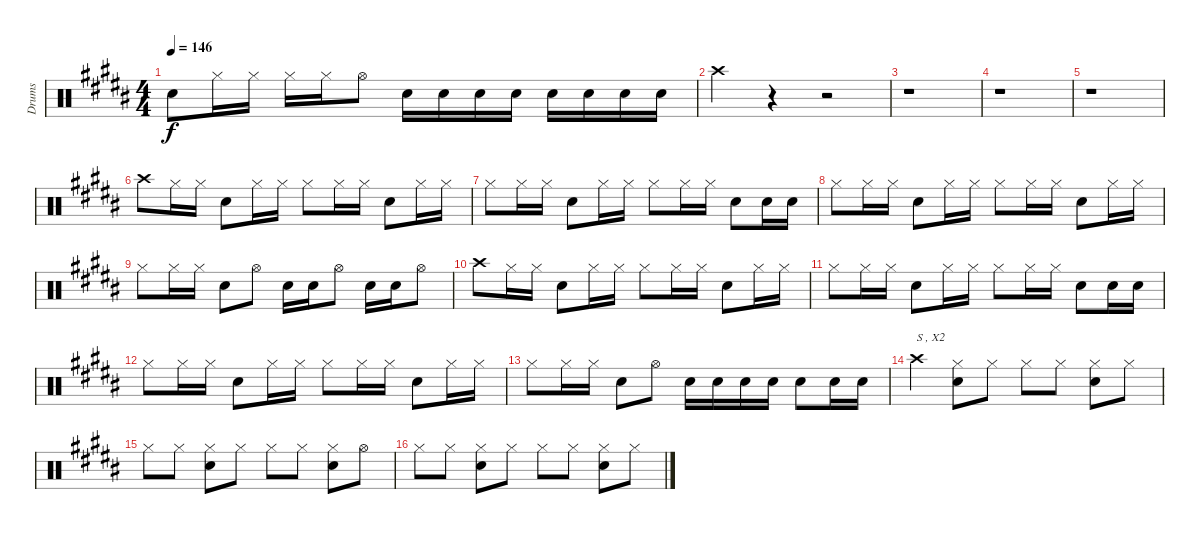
\track ("Drums" "Drums") {instrument percussion}
\staff {score}
\articulation defaults
\ts (4 4)
\tempo 146
\clef neutral
\ks b "Snare (hit) 2".8{dy f} "Hi-Hat (closed)".16 "Hi-Hat (closed)".16 "Hi-Hat (closed)".16 "Hi-Hat (closed)".16 "Hi-Hat (open)".8 "Snare (hit) 2".16 "Snare (hit) 2".16 "Snare (hit) 2".16 "Snare (hit) 2".16 "Snare (hit) 2".16 "Snare (hit) 2".16 "Snare (hit) 2".16 "Snare (hit) 2".16
|
"Crash high (hit)".4 r.4 r.2 |
r.1 |
r.1 |
r.1 |
"Crash high (hit)".8 "Hi-Hat (closed)".16 "Hi-Hat (closed)".16 "Snare (hit) 2".8 "Hi-Hat (closed)".16 "Hi-Hat (closed)".16 "Hi-Hat (closed)".8 "Hi-Hat (closed)".16 "Hi-Hat (closed)".16 "Snare (hit) 2".8 "Hi-Hat (closed)".16 "Hi-Hat (closed)".16 |
"Hi-Hat (closed)".8 "Hi-Hat (closed)".16 "Hi-Hat (closed)".16 "Snare (hit) 2".8 "Hi-Hat (closed)".16 "Hi-Hat (closed)".16 "Hi-Hat (closed)".8 "Hi-Hat (closed)".16 "Hi-Hat (closed)".16 "Snare (hit) 2".8 "Snare (hit) 2".16 "Snare (hit) 2".16 |
"Hi-Hat (closed)".8 "Hi-Hat (closed)".16 "Hi-Hat (closed)".16 "Snare (hit) 2".8 "Hi-Hat (closed)".16 "Hi-Hat (closed)".16 "Hi-Hat (closed)".8 "Hi-Hat (closed)".16 "Hi-Hat (closed)".16 "Snare (hit) 2".8 "Hi-Hat (closed)".16 "Hi-Hat (closed)".16 |
"Hi-Hat (closed)".8 "Hi-Hat (closed)".16 "Hi-Hat (closed)".16 "Snare (hit) 2".8 "Hi-Hat (open)".8 "Snare (hit) 2".16 "Snare (hit) 2".16 "Hi-Hat (open)".8 "Snare (hit) 2".16 "Snare (hit) 2".16 "Hi-Hat (open)".8 |
"Crash high (hit)".8 "Hi-Hat (closed)".16 "Hi-Hat (closed)".16 "Snare (hit) 2".8 "Hi-Hat (closed)".16 "Hi-Hat (closed)".16 "Hi-Hat (closed)".8 "Hi-Hat (closed)".16 "Hi-Hat (closed)".16 "Snare (hit) 2".8 "Hi-Hat (closed)".16 "Hi-Hat (closed)".16 |
"Hi-Hat (closed)".8 "Hi-Hat (closed)".16 "Hi-Hat (closed)".16 "Snare (hit) 2".8 "Hi-Hat (closed)".16 "Hi-Hat (closed)".16 "Hi-Hat (closed)".8 "Hi-Hat (closed)".16 "Hi-Hat (closed)".16 "Snare (hit) 2".8 "Snare (hit) 2".16 "Snare (hit) 2".16 |
"Hi-Hat (closed)".8 "Hi-Hat (closed)".16 "Hi-Hat (closed)".16 "Snare (hit) 2".8 "Hi-Hat (closed)".16 "Hi-Hat (closed)".16 "Hi-Hat (closed)".8 "Hi-Hat (closed)".16 "Hi-Hat (closed)".16 "Snare (hit) 2".8 "Hi-Hat (closed)".16 "Hi-Hat (closed)".16 |
"Hi-Hat (closed)".8 "Hi-Hat (closed)".16 "Hi-Hat (closed)".16 "Snare (hit) 2".8 "Hi-Hat (open)".8 "Snare (hit) 2".16 "Snare (hit) 2".16 "Snare (hit) 2".16 "Snare (hit) 2".16 "Snare (hit) 2".8 "Snare (hit) 2".16 "Snare (hit) 2".16 |
"Crash high (hit)".4{txt "S , X2"} ("Hi-Hat (closed)" "Snare (hit) 2").8 "Hi-Hat (closed)".8 "Hi-Hat (closed)".8 "Hi-Hat (closed)".8 ("Hi-Hat (closed)" "Snare (hit) 2").8 "Hi-Hat (closed)".8 |
"Hi-Hat (closed)".8 "Hi-Hat (closed)".8 ("Hi-Hat (closed)" "Snare (hit) 2").8 "Hi-Hat (closed)".8 "Hi-Hat (closed)".8 "Hi-Hat (closed)".8 ("Hi-Hat (closed)" "Snare (hit) 2").8 "Hi-Hat (open)".8 |
"Hi-Hat (closed)".8 "Hi-Hat (closed)".8 ("Hi-Hat (closed)" "Snare (hit) 2").8 "Hi-Hat (closed)".8 "Hi-Hat (closed)".8 "Hi-Hat (closed)".8 ("Hi-Hat (closed)" "Snare (hit) 2").8 "Hi-Hat (closed)".8
